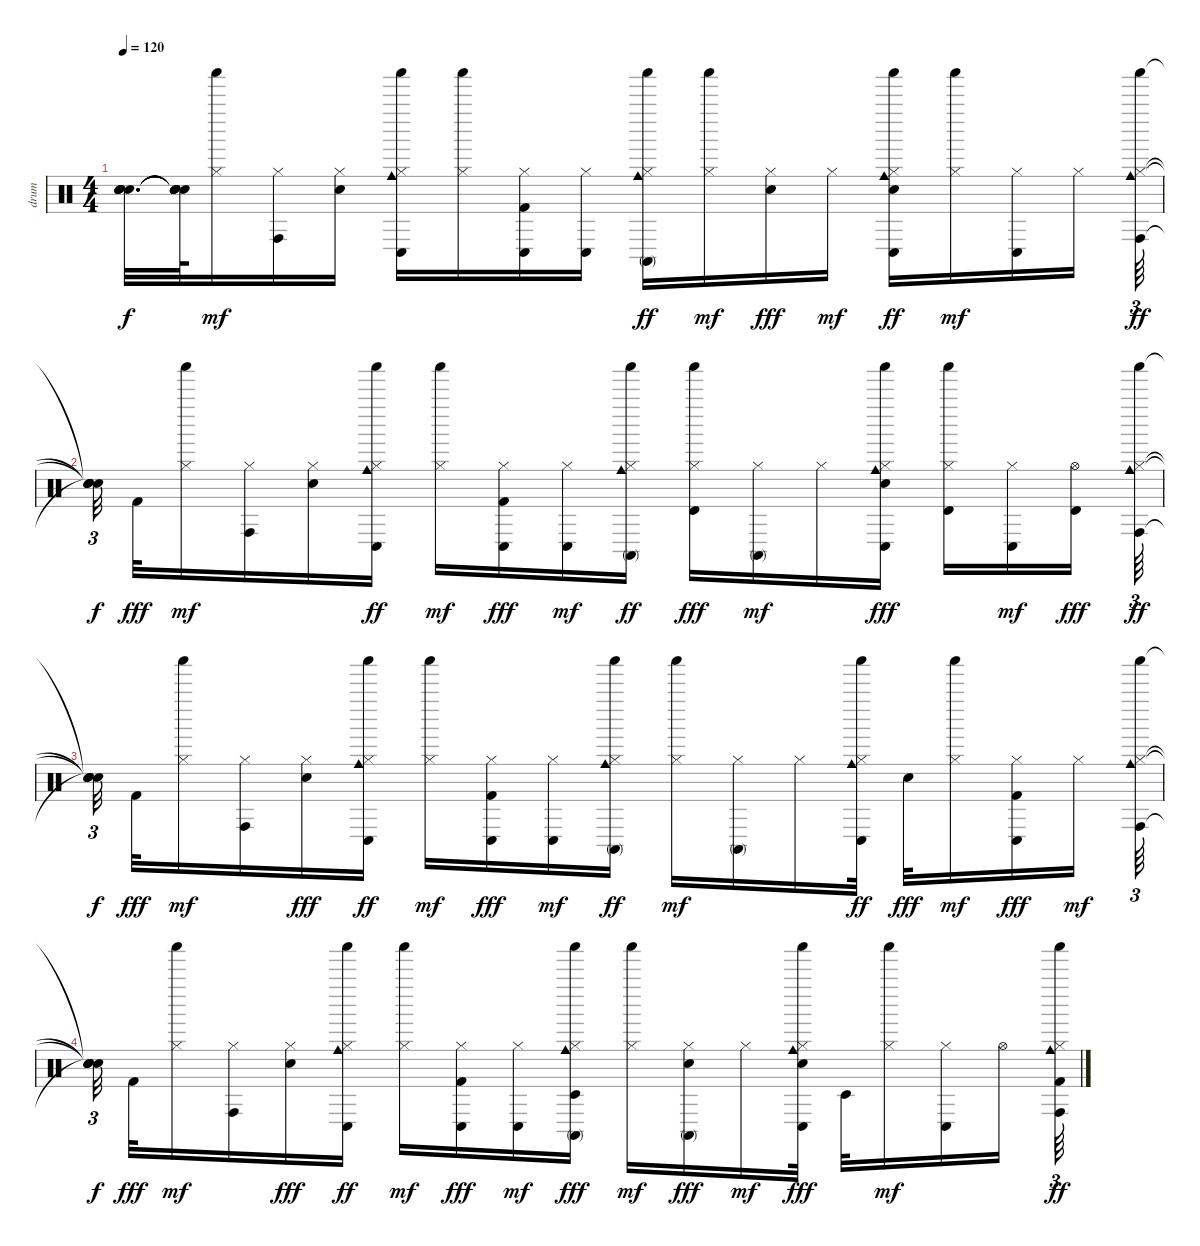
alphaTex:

\track ("drum" "drum") {instrument percussion}
\staff {score}
\articulation defaults
\ts (4 4)
\tempo 120
\clef neutral
\ks c
("Snare (hit)"{t} "Snare (hit)"{t} "Snare (hit)"{t} "Snare (hit)"{t} "Snare (hit)"{t}).32{d dy f} ("Snare (hit)"{t} "Snare (hit)"{t} "Snare (hit)"{t} "Snare (hit)"{t} "Snare (hit)"{t}).64 ("Shaker (hit)" "Hi-Hat (closed)").16{dy mf} ("Conga high (hit)" "Hi-Hat (closed)").16 ("Electric Snare (hit)" "Hi-Hat (closed)").16 ("Conga low (hit)" "Cowbell medium (hit)" "Hi-Hat (closed)" "Shaker (hit)").16 ("Shaker (hit)" "Hi-Hat (closed)").16 ("Conga low (hit)" "Kick (hit) 2" "Hi-Hat (closed)").16 ("Conga low (hit)" "Hi-Hat (closed)").16 ("Conga high (mute)" "Cowbell medium (hit)" "Shaker (hit)" "Hi-Hat (closed)").16{dy ff} ("Shaker (hit)" "Hi-Hat (closed)").16{dy mf} ("Hi-Hat (closed)" "Electric Snare (hit)").16{dy fff} "Hi-Hat (closed)".16{dy mf} ("Conga low (hit)" "Shaker (hit)" "Cowbell medium (hit)" "Electric Snare (hit)" "Hi-Hat (closed)").16{dy ff} ("Shaker (hit)" "Hi-Hat (closed)").16{dy mf} ("Conga low (hit)" "Hi-Hat (closed)").16 "Hi-Hat (closed)".16 ("Conga high (hit)" "Shaker (hit)" "Cowbell medium (hit)" "Hi-Hat (closed)").64{tu (3 2) dy ff} |
("Snare (hit)"{t} "Snare (hit)"{t} "Snare (hit)"{t} "Snare (hit)"{t}).32{tu (3 2) dy f beam splitsecondary} "Kick (hit) 2".32{dy fff} ("Shaker (hit)" "Hi-Hat (closed)").16{dy mf} ("Conga high (hit)" "Hi-Hat (closed)").16 ("Electric Snare (hit)" "Hi-Hat (closed)").16 ("Conga low (hit)" "Cowbell medium (hit)" "Shaker (hit)" "Hi-Hat (closed)").16{dy ff} ("Shaker (hit)" "Hi-Hat (closed)").16{dy mf} ("Conga low (hit)" "Hi-Hat (closed)" "Kick (hit) 2").16{dy fff} ("Conga low (hit)" "Hi-Hat (closed)").16{dy mf} ("Conga high (mute)" "Cowbell medium (hit)" "Shaker (hit)" "Hi-Hat (closed)").16{dy ff} ("Shaker (hit)" "Hi-Hat (closed)" "Timbale high (hit)").16{dy fff} ("Conga high (mute)" "Hi-Hat (closed)").16{dy mf} "Hi-Hat (closed)".16 ("Conga low (hit)" "Cowbell medium (hit)" "Shaker (hit)" "Hi-Hat (closed)" "Electric Snare (hit)").16{dy fff} ("Shaker (hit)" "Hi-Hat (closed)" "Timbale high (hit)").16 ("Conga low (hit)" "Hi-Hat (closed)").16{dy mf} ("Hi-Hat (open)" "Timbale high (hit)").16{dy fff beam splitsecondary} ("Conga high (hit)" "Shaker (hit)" "Cowbell medium (hit)" "Hi-Hat (closed)").64{tu (3 2) dy ff} |
("Snare (hit)"{t} "Snare (hit)"{t} "Snare (hit)"{t} "Snare (hit)"{t}).32{tu (3 2) dy f beam splitsecondary} "Kick (hit) 2".32{dy fff} ("Shaker (hit)" "Hi-Hat (closed)").16{dy mf} ("Conga high (hit)" "Hi-Hat (closed)").16 ("Hi-Hat (closed)" "Electric Snare (hit)").16{dy fff} ("Conga low (hit)" "Shaker (hit)" "Cowbell medium (hit)" "Hi-Hat (closed)").16{dy ff} ("Shaker (hit)" "Hi-Hat (closed)").16{dy mf} ("Conga low (hit)" "Hi-Hat (closed)" "Kick (hit) 2").16{dy fff} ("Conga low (hit)" "Hi-Hat (closed)").16{dy mf} ("Conga high (mute)" "Cowbell medium (hit)" "Shaker (hit)" "Hi-Hat (closed)").16{dy ff} ("Shaker (hit)" "Hi-Hat (closed)").16{dy mf} ("Conga high (mute)" "Hi-Hat (closed)").16 "Hi-Hat (closed)".16 ("Conga low (hit)" "Cowbell medium (hit)" "Shaker (hit)" "Hi-Hat (closed)").32{dy ff} "Electric Snare (hit)".32{dy fff} ("Shaker (hit)" "Hi-Hat (closed)").16{dy mf} ("Conga low (hit)" "Hi-Hat (closed)" "Kick (hit) 2").16{dy fff} "Hi-Hat (closed)".16{dy mf beam splitsecondary} ("Conga high (hit)" "Cowbell medium (hit)" "Hi-Hat (closed)" "Shaker (hit)").64{tu (3 2)} |
("Snare (hit)"{t} "Snare (hit)"{t} "Snare (hit)"{t} "Snare (hit)"{t}).32{tu (3 2) dy f beam splitsecondary} "Kick (hit) 2".32{dy fff} ("Shaker (hit)" "Hi-Hat (closed)").16{dy mf} ("Conga high (hit)" "Hi-Hat (closed)").16 ("Hi-Hat (closed)" "Electric Snare (hit)").16{dy fff} ("Conga low (hit)" "Cowbell medium (hit)" "Shaker (hit)" "Hi-Hat (closed)").16{dy ff} ("Shaker (hit)" "Hi-Hat (closed)").16{dy mf} ("Conga low (hit)" "Hi-Hat (closed)" "Kick (hit) 2").16{dy fff} ("Conga low (hit)" "Hi-Hat (closed)").16{dy mf} ("Conga high (mute)" "Cowbell medium (hit)" "Shaker (hit)" "Hi-Hat (closed)" "Timbale low (hit)").16{dy fff} ("Shaker (hit)" "Hi-Hat (closed)").16{dy mf} ("Conga high (mute)" "Hi-Hat (closed)" "Electric Snare (hit)").16{dy fff} "Hi-Hat (closed)".16{dy mf} ("Conga low (hit)" "Hi-Hat (closed)" "Shaker (hit)" "Cowbell medium (hit)" "Electric Snare (hit)").32{dy fff} "Timbale low (hit)".32 ("Shaker (hit)" "Hi-Hat (closed)").16{dy mf} ("Conga low (hit)" "Hi-Hat (closed)").16 "Hi-Hat (open)".16{beam splitsecondary} ("Conga high (hit)" "Shaker (hit)" "Cowbell medium (hit)" "Kick (hit) 2" "Hi-Hat (closed)").64{tu (3 2) dy ff}
